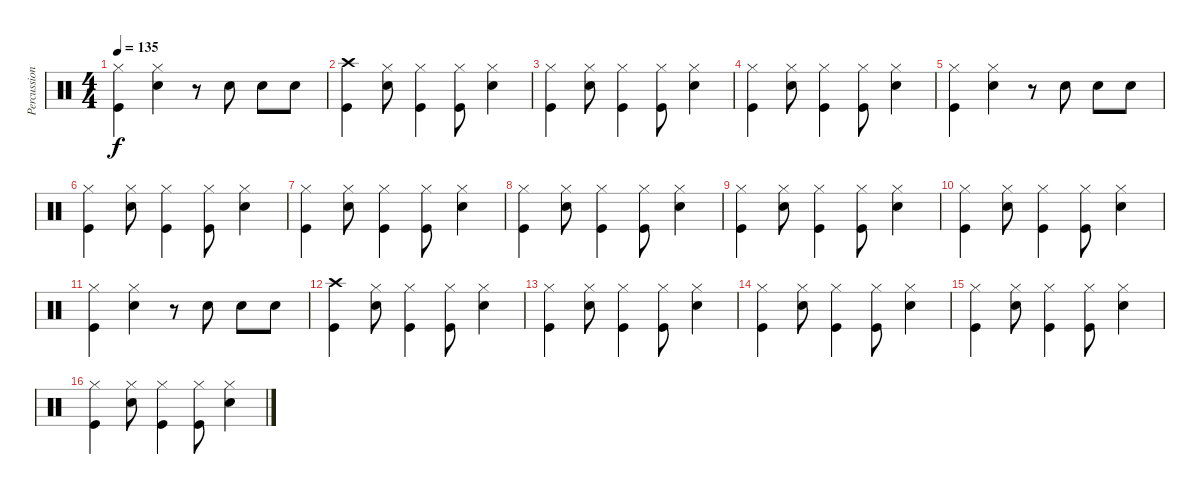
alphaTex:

\track ("Percussion" "Percussion") {instrument percussion}
\staff {score}
\articulation defaults
\ts (4 4)
\tempo 135
\clef neutral
\ks c
("Hi-Hat (closed)" "Kick (hit)").4{dy f} ("Hi-Hat (closed)" "Electric Snare (hit)").4 r.8 "Electric Snare (hit)".8 "Electric Snare (hit)".8 "Electric Snare (hit)".8 |
("Crash high (hit)" "Kick (hit)").4 ("Hi-Hat (closed)" "Electric Snare (hit)").8 ("Hi-Hat (closed)" "Kick (hit)").4 ("Hi-Hat (closed)" "Kick (hit)").8 ("Hi-Hat (closed)" "Electric Snare (hit)").4 |
("Hi-Hat (closed)" "Kick (hit)").4 ("Hi-Hat (closed)" "Electric Snare (hit)").8 ("Hi-Hat (closed)" "Kick (hit)").4 ("Hi-Hat (closed)" "Kick (hit)").8 ("Hi-Hat (closed)" "Electric Snare (hit)").4 |
("Hi-Hat (closed)" "Kick (hit)").4 ("Hi-Hat (closed)" "Electric Snare (hit)").8 ("Hi-Hat (closed)" "Kick (hit)").4 ("Hi-Hat (closed)" "Kick (hit)").8 ("Hi-Hat (closed)" "Electric Snare (hit)").4 |
("Hi-Hat (closed)" "Kick (hit)").4 ("Hi-Hat (closed)" "Electric Snare (hit)").4 r.8 "Electric Snare (hit)".8 "Electric Snare (hit)".8 "Electric Snare (hit)".8 |
("Hi-Hat (closed)" "Kick (hit)").4 ("Hi-Hat (closed)" "Electric Snare (hit)").8 ("Hi-Hat (closed)" "Kick (hit)").4 ("Hi-Hat (closed)" "Kick (hit)").8 ("Hi-Hat (closed)" "Electric Snare (hit)").4 |
("Hi-Hat (closed)" "Kick (hit)").4 ("Hi-Hat (closed)" "Electric Snare (hit)").8 ("Hi-Hat (closed)" "Kick (hit)").4 ("Hi-Hat (closed)" "Kick (hit)").8 ("Hi-Hat (closed)" "Electric Snare (hit)").4 |
("Hi-Hat (closed)" "Kick (hit)").4 ("Hi-Hat (closed)" "Electric Snare (hit)").8 ("Hi-Hat (closed)" "Kick (hit)").4 ("Hi-Hat (closed)" "Kick (hit)").8 ("Hi-Hat (closed)" "Electric Snare (hit)").4 |
("Hi-Hat (closed)" "Kick (hit)").4 ("Hi-Hat (closed)" "Electric Snare (hit)").8 ("Hi-Hat (closed)" "Kick (hit)").4 ("Hi-Hat (closed)" "Kick (hit)").8 ("Hi-Hat (closed)" "Electric Snare (hit)").4 |
("Hi-Hat (closed)" "Kick (hit)").4 ("Hi-Hat (closed)" "Electric Snare (hit)").8 ("Hi-Hat (closed)" "Kick (hit)").4 ("Hi-Hat (closed)" "Kick (hit)").8 ("Hi-Hat (closed)" "Electric Snare (hit)").4 |
("Hi-Hat (closed)" "Kick (hit)").4 ("Hi-Hat (closed)" "Electric Snare (hit)").4 r.8 "Electric Snare (hit)".8 "Electric Snare (hit)".8 "Electric Snare (hit)".8 |
("Crash high (hit)" "Kick (hit)").4 ("Hi-Hat (closed)" "Electric Snare (hit)").8 ("Hi-Hat (closed)" "Kick (hit)").4 ("Hi-Hat (closed)" "Kick (hit)").8 ("Hi-Hat (closed)" "Electric Snare (hit)").4 |
("Hi-Hat (closed)" "Kick (hit)").4 ("Hi-Hat (closed)" "Electric Snare (hit)").8 ("Hi-Hat (closed)" "Kick (hit)").4 ("Hi-Hat (closed)" "Kick (hit)").8 ("Hi-Hat (closed)" "Electric Snare (hit)").4 |
("Hi-Hat (closed)" "Kick (hit)").4 ("Hi-Hat (closed)" "Electric Snare (hit)").8 ("Hi-Hat (closed)" "Kick (hit)").4 ("Hi-Hat (closed)" "Kick (hit)").8 ("Hi-Hat (closed)" "Electric Snare (hit)").4 |
("Hi-Hat (closed)" "Kick (hit)").4 ("Hi-Hat (closed)" "Electric Snare (hit)").8 ("Hi-Hat (closed)" "Kick (hit)").4 ("Hi-Hat (closed)" "Kick (hit)").8 ("Hi-Hat (closed)" "Electric Snare (hit)").4 |
("Hi-Hat (closed)" "Kick (hit)").4 ("Hi-Hat (closed)" "Electric Snare (hit)").8 ("Hi-Hat (closed)" "Kick (hit)").4 ("Hi-Hat (closed)" "Kick (hit)").8 ("Hi-Hat (closed)" "Electric Snare (hit)").4
